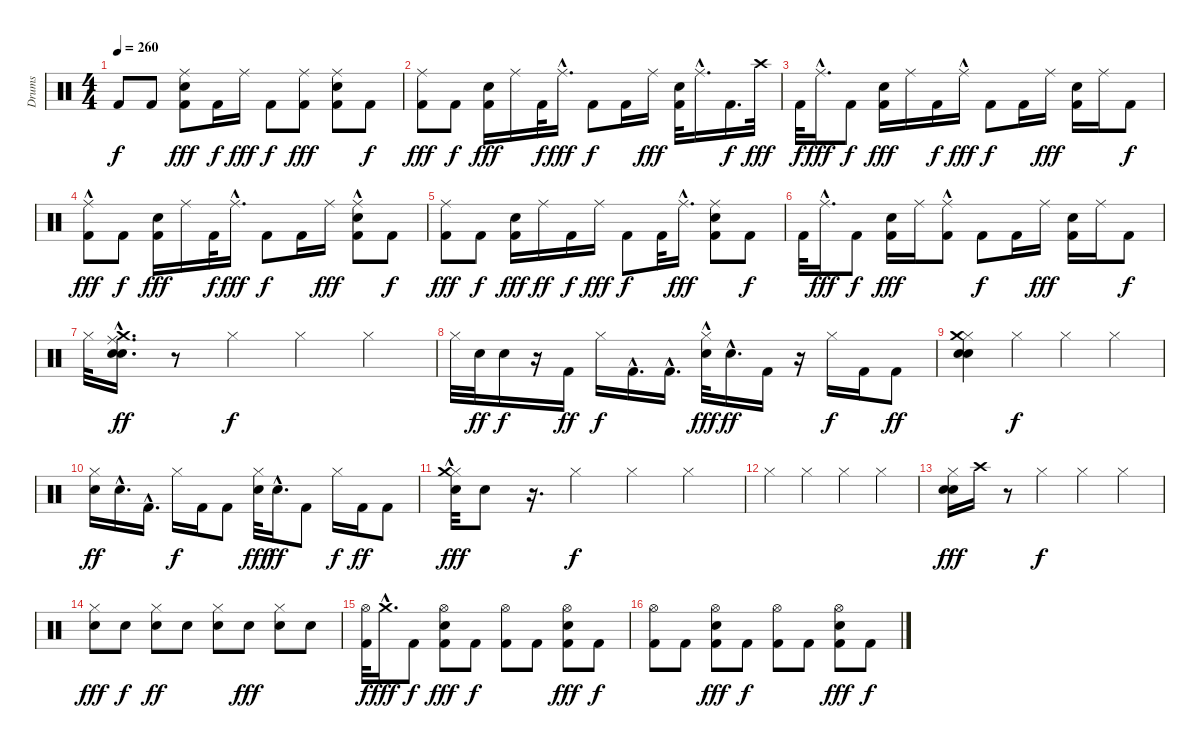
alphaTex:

\track ("Drums" "Drums") {instrument percussion}
\staff {score}
\articulation defaults
\ts (4 4)
\tempo 260
\clef neutral
\ks c "Kick (hit) 2".8{dy f} "Kick (hit) 2".8
("Snare (hit) 2" "Kick (hit) 2" "Ride (middle)").8{dy fff} "Kick (hit) 2".16{dy f} "Ride (middle)".16{dy fff} "Kick (hit) 2".8{dy f} ("Kick (hit) 2" "Ride (middle)").8{dy fff} ("Snare (hit) 2" "Kick (hit) 2" "Ride (middle)").8 "Kick (hit) 2".8{dy f} |
("Kick (hit) 2" "Ride (middle)").8{dy fff} "Kick (hit) 2".8{dy f} ("Snare (hit) 2" "Kick (hit) 2").16{dy fff} "Ride (middle)".16 "Kick (hit) 2".32{dy f} "Ride (middle)"{hac}.16{d dy fff} "Kick (hit) 2".8{dy f} "Kick (hit) 2".16 "Ride (middle)".16{dy fff} ("Snare (hit) 2" "Kick (hit) 2").32 "Ride (middle)"{hac}.16{d} "Kick (hit) 2".16{d dy f} "Crash high (hit)".32{dy fff} |
"Kick (hit) 2".32{dy f} "Ride (middle)"{hac}.16{d dy fff} "Kick (hit) 2".8{dy f} ("Snare (hit) 2" "Kick (hit) 2").16{dy fff} "Ride (middle)".16 "Kick (hit) 2".16{dy f} "Ride (middle)"{hac}.16{dy fff} "Kick (hit) 2".8{dy f} "Kick (hit) 2".16 "Ride (middle)".16{dy fff} ("Snare (hit) 2" "Kick (hit) 2").16 "Ride (middle)".16 "Kick (hit) 2".8{dy f} |
("Kick (hit) 2" "Ride (middle)"{hac}).8{dy fff} "Kick (hit) 2".8{dy f} ("Snare (hit) 2" "Kick (hit) 2").16{dy fff} "Ride (middle)".16 "Kick (hit) 2".32{dy f} "Ride (middle)"{hac}.16{d dy fff} "Kick (hit) 2".8{dy f} "Kick (hit) 2".16 "Ride (middle)".16{dy fff} ("Snare (hit) 2" "Kick (hit) 2" "Ride (middle)"{hac}).8 "Kick (hit) 2".8{dy f} |
("Kick (hit) 2" "Ride (middle)").8{dy fff} "Kick (hit) 2".8{dy f} ("Snare (hit) 2" "Kick (hit) 2").16{dy fff} "Ride (middle)".16{dy ff} "Kick (hit) 2".16{dy f} "Ride (middle)".16{dy fff} "Kick (hit) 2".8{dy f} "Kick (hit) 2".32 "Ride (middle)"{hac}.16{d dy fff} ("Snare (hit) 2" "Kick (hit) 2" "Ride (middle)").8 "Kick (hit) 2".8{dy f} |
"Kick (hit) 2".32 "Ride (middle)"{hac}.16{d dy fff} "Kick (hit) 2".8{dy f} ("Snare (hit) 2" "Kick (hit) 2").16{dy fff} "Ride (middle)".16 ("Kick (hit) 2" "Ride (middle)"{hac}).8 "Kick (hit) 2".8{dy f} "Kick (hit) 2".16 "Ride (middle)".16{dy fff} ("Snare (hit) 2" "Kick (hit) 2").16 "Ride (middle)".16 "Kick (hit) 2".8{dy f} |
"Hi-Hat (closed)".32 ("Ride (middle)" "Crash medium (hit)" "Snare (hit) 2"{hac} "Electric Snare (hit)"{hac}).16{d dy ff} r.8 "Hi-Hat (closed)".4{dy f} "Hi-Hat (closed)".4 "Hi-Hat (closed)".4 |
"Hi-Hat (closed)".32 "Snare (hit) 2".32{dy ff} "Electric Snare (hit)".16{dy f} r.16 "Kick (hit) 2".16{dy ff} "Hi-Hat (closed)".16{dy f} "Kick (hit) 2"{hac}.16{d} "Kick (hit) 2"{hac}.16{d} ("Hi-Hat (closed)" "Electric Snare (hit)"{hac}).32{dy fff} "Snare (hit) 2"{hac}.16{d dy ff} "Kick (hit) 2".16 r.16 "Hi-Hat (closed)".16{dy f} "Kick (hit) 2".16 "Kick (hit) 2".8{dy ff} |
("Hi-Hat (closed)" "Crash medium (hit)" "Electric Snare (hit)" "Snare (hit) 2").4 "Hi-Hat (closed)".4{dy f} "Hi-Hat (closed)".4 "Hi-Hat (closed)".4 |
("Hi-Hat (closed)" "Electric Snare (hit)").16{dy ff} "Snare (hit) 2"{hac}.16{d} "Kick (hit) 2"{hac}.16{d} "Hi-Hat (closed)".16{dy f} "Kick (hit) 2".16 "Kick (hit) 2".8 ("Hi-Hat (closed)" "Electric Snare (hit)").32{dy fff} "Snare (hit) 2"{hac}.16{d dy ff} "Kick (hit) 2".8 "Hi-Hat (closed)".16{dy f} "Kick (hit) 2".16{dy ff} "Kick (hit) 2".8 |
("Hi-Hat (closed)" "Electric Snare (hit)" "Crash medium (hit)"{hac}).32{dy fff} "Snare (hit) 2".8 r.16{d} "Hi-Hat (closed)".4{dy f} "Hi-Hat (closed)".4 "Hi-Hat (closed)".4 |
"Hi-Hat (closed)".4 "Hi-Hat (closed)".4 "Hi-Hat (closed)".4 "Hi-Hat (closed)".4 |
("Electric Snare (hit)" "Hi-Hat (closed)" "Snare (hit) 2").16{dy fff} "Crash high (hit)".16 r.8 "Hi-Hat (closed)".4{dy f} "Hi-Hat (closed)".4 "Hi-Hat (closed)".4 |
("Hi-Hat (closed)" "Electric Snare (hit)").8{dy fff} "Electric Snare (hit)".8{dy f} ("Hi-Hat (closed)" "Electric Snare (hit)").8{dy ff} "Electric Snare (hit)".8 ("Hi-Hat (closed)" "Electric Snare (hit)").8 "Electric Snare (hit)".8{dy fff} ("Hi-Hat (closed)" "Electric Snare (hit)").8 "Electric Snare (hit)".8 |
("Hi-Hat (open)" "Kick (hit) 2").32{dy f} "Crash medium (hit)"{hac}.16{d dy fff} "Kick (hit) 2".8{dy f} ("Hi-Hat (open)" "Snare (hit) 2" "Kick (hit) 2").8{dy fff} "Kick (hit) 2".8{dy f} ("Hi-Hat (open)" "Kick (hit) 2").8 "Kick (hit) 2".8 ("Hi-Hat (open)" "Snare (hit) 2" "Kick (hit) 2").8{dy fff} "Kick (hit) 2".8{dy f} |
("Hi-Hat (open)" "Kick (hit) 2").8 "Kick (hit) 2".8 ("Hi-Hat (open)" "Snare (hit) 2" "Kick (hit) 2").8{dy fff} "Kick (hit) 2".8{dy f} ("Hi-Hat (open)" "Kick (hit) 2").8 "Kick (hit) 2".8 ("Hi-Hat (open)" "Snare (hit) 2" "Kick (hit) 2").8{dy fff} "Kick (hit) 2".8{dy f}
